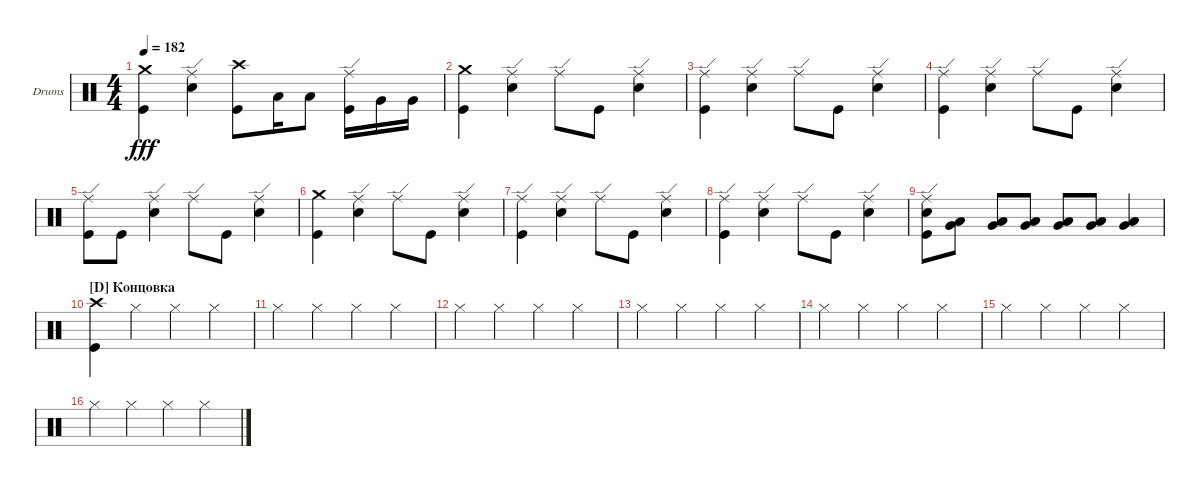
\defaultSystemsLayout 4
\bracketExtendMode groupsimilarinstruments
\firstSystemTrackNameOrientation horizontal
\otherSystemsTrackNameOrientation horizontal
\track ("Drumkit" "Drums") {instrument percussion}
\staff {score}
\articulation defaults
\ts (4 4)
\tempo 182
\clef neutral
\ks c
("Kick (hit)" "Crash medium (hit)").4{dy fff} ("Snare (hit) 2" "Ride (edge)").4 ("Kick (hit)" "Crash high (hit)").8 "Low Tom (hit)".16 "Low Tom (hit)".8 ("Kick (hit)" "Ride (edge)").16 "Very Low Tom (hit)".16 "Very Low Tom (hit)".16 |
("Kick (hit)" "Crash medium (hit)").4 ("Snare (hit) 2" "Ride (edge)").4 "Ride (edge)".8 "Kick (hit)".8 ("Snare (hit) 2" "Ride (edge)").4 |
("Kick (hit)" "Ride (edge)").4 ("Snare (hit) 2" "Ride (edge)").4 "Ride (edge)".8 "Kick (hit)".8 ("Snare (hit) 2" "Ride (edge)").4 |
("Kick (hit)" "Ride (edge)").4 ("Snare (hit) 2" "Ride (edge)").4 "Ride (edge)".8 "Kick (hit)".8 ("Snare (hit) 2" "Ride (edge)").4 |
("Kick (hit)" "Ride (edge)").8 "Kick (hit)".8 ("Snare (hit) 2" "Ride (edge)").4 "Ride (edge)".8 "Kick (hit)".8 ("Snare (hit) 2" "Ride (edge)").4 |
("Kick (hit)" "Crash medium (hit)").4 ("Snare (hit) 2" "Ride (edge)").4 "Ride (edge)".8 "Kick (hit)".8 ("Snare (hit) 2" "Ride (edge)").4 |
("Kick (hit)" "Ride (edge)").4 ("Snare (hit) 2" "Ride (edge)").4 "Ride (edge)".8 "Kick (hit)".8 ("Snare (hit) 2" "Ride (edge)").4 |
("Kick (hit)" "Ride (edge)").4 ("Snare (hit) 2" "Ride (edge)").4 "Ride (edge)".8 "Kick (hit)".8 ("Snare (hit) 2" "Ride (edge)").4 |
("Kick (hit)" "Ride (edge)" "Snare (hit) 2").8 ("Very Low Tom (hit)" "Low Tom (hit)").8 ("Very Low Tom (hit)" "Low Tom (hit)").8 ("Very Low Tom (hit)" "Low Tom (hit)").8 ("Very Low Tom (hit)" "Low Tom (hit)").8 ("Very Low Tom (hit)" "Low Tom (hit)").8 ("Very Low Tom (hit)" "Low Tom (hit)").4 |
\section ("D" "Концовка")
("Kick (hit)" "Crash high (hit)").4 "Hi-Hat (closed)".4 "Hi-Hat (closed)".4 "Hi-Hat (closed)".4 |
"Hi-Hat (closed)".4 "Hi-Hat (closed)".4 "Hi-Hat (closed)".4 "Hi-Hat (closed)".4 |
"Hi-Hat (closed)".4 "Hi-Hat (closed)".4 "Hi-Hat (closed)".4 "Hi-Hat (closed)".4 |
"Hi-Hat (closed)".4 "Hi-Hat (closed)".4 "Hi-Hat (closed)".4 "Hi-Hat (closed)".4 |
"Hi-Hat (closed)".4 "Hi-Hat (closed)".4 "Hi-Hat (closed)".4 "Hi-Hat (closed)".4 |
"Hi-Hat (closed)".4 "Hi-Hat (closed)".4 "Hi-Hat (closed)".4 "Hi-Hat (closed)".4 |
"Hi-Hat (closed)".4 "Hi-Hat (closed)".4 "Hi-Hat (closed)".4 "Hi-Hat (closed)".4
